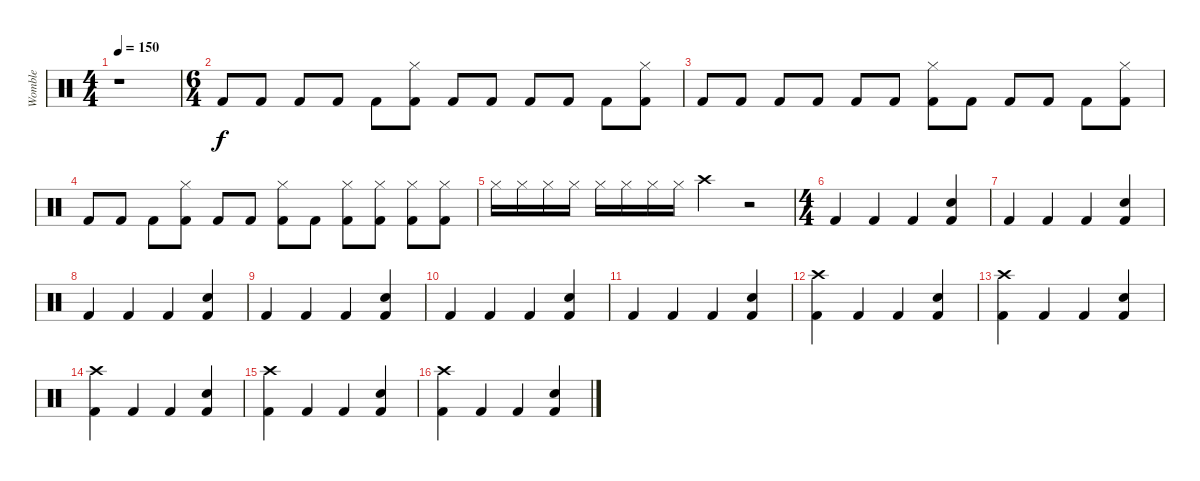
\track ("Womble" "Womble") {instrument percussion}
\staff {score}
\articulation defaults
\ts (4 4)
\tempo 150
\clef neutral
\ks c
r.1{dy f} |
\ts (6 4)
"Kick (hit) 2".8 "Kick (hit) 2".8 "Kick (hit) 2".8 "Kick (hit) 2".8 "Kick (hit) 2".8 ("Hi-Hat (closed)" "Kick (hit) 2").8 "Kick (hit) 2".8 "Kick (hit) 2".8 "Kick (hit) 2".8 "Kick (hit) 2".8 "Kick (hit) 2".8 ("Hi-Hat (closed)" "Kick (hit) 2").8 |
"Kick (hit) 2".8 "Kick (hit) 2".8 "Kick (hit) 2".8 "Kick (hit) 2".8 "Kick (hit) 2".8 "Kick (hit) 2".8 ("Hi-Hat (closed)" "Kick (hit) 2").8 "Kick (hit) 2".8 "Kick (hit) 2".8 "Kick (hit) 2".8 "Kick (hit) 2".8 ("Hi-Hat (closed)" "Kick (hit) 2").8 |
"Kick (hit) 2".8 "Kick (hit) 2".8 "Kick (hit) 2".8 ("Hi-Hat (closed)" "Kick (hit) 2").8 "Kick (hit) 2".8 "Kick (hit) 2".8 ("Hi-Hat (closed)" "Kick (hit) 2").8 "Kick (hit) 2".8 ("Hi-Hat (closed)" "Kick (hit) 2").8 ("Hi-Hat (closed)" "Kick (hit) 2").8 ("Hi-Hat (closed)" "Kick (hit) 2").8 ("Hi-Hat (closed)" "Kick (hit) 2").8 |
"Hi-Hat (closed)".16 "Hi-Hat (closed)".16 "Hi-Hat (closed)".16 "Hi-Hat (closed)".16 "Hi-Hat (closed)".16 "Hi-Hat (closed)".16 "Hi-Hat (closed)".16 "Hi-Hat (closed)".16 "Crash high (hit)".2 r.2 |
\ts (4 4)
"Kick (hit) 2".4 "Kick (hit) 2".4 "Kick (hit) 2".4 ("Snare (hit) 2" "Kick (hit) 2").4 |
"Kick (hit) 2".4 "Kick (hit) 2".4 "Kick (hit) 2".4 ("Snare (hit) 2" "Kick (hit) 2").4 |
"Kick (hit) 2".4 "Kick (hit) 2".4 "Kick (hit) 2".4 ("Snare (hit) 2" "Kick (hit) 2").4 |
"Kick (hit) 2".4 "Kick (hit) 2".4 "Kick (hit) 2".4 ("Snare (hit) 2" "Kick (hit) 2").4 |
"Kick (hit) 2".4 "Kick (hit) 2".4 "Kick (hit) 2".4 ("Snare (hit) 2" "Kick (hit) 2").4 |
"Kick (hit) 2".4 "Kick (hit) 2".4 "Kick (hit) 2".4 ("Snare (hit) 2" "Kick (hit) 2").4 |
("Crash high (hit)" "Kick (hit) 2").4 "Kick (hit) 2".4 "Kick (hit) 2".4 ("Snare (hit) 2" "Kick (hit) 2").4 |
("Crash high (hit)" "Kick (hit) 2").4 "Kick (hit) 2".4 "Kick (hit) 2".4 ("Snare (hit) 2" "Kick (hit) 2").4 |
("Crash high (hit)" "Kick (hit) 2").4 "Kick (hit) 2".4 "Kick (hit) 2".4 ("Snare (hit) 2" "Kick (hit) 2").4 |
("Crash high (hit)" "Kick (hit) 2").4 "Kick (hit) 2".4 "Kick (hit) 2".4 ("Snare (hit) 2" "Kick (hit) 2").4 |
("Crash high (hit)" "Kick (hit) 2").4 "Kick (hit) 2".4 "Kick (hit) 2".4 ("Snare (hit) 2" "Kick (hit) 2").4
